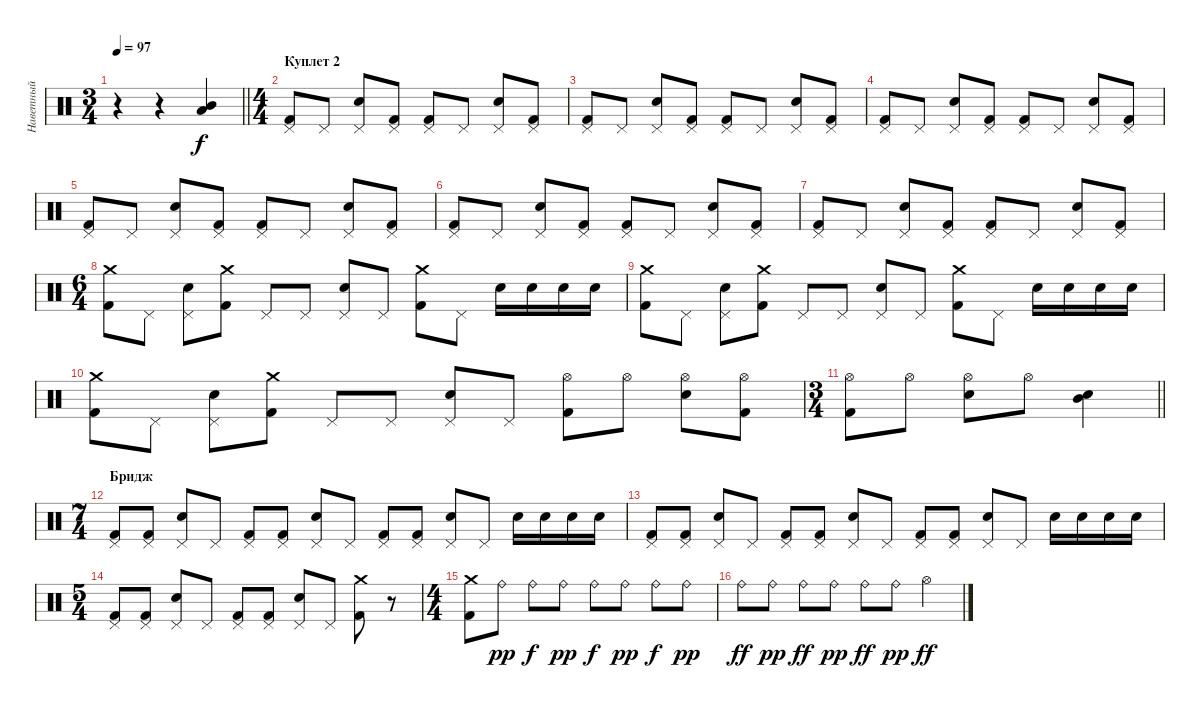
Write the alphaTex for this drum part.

\track ("Наветный" "Наветный") {instrument percussion}
\staff {score}
\articulation defaults
\ts (3 4)
\tempo 97
\clef neutral
\barLineRight lightlight
\ks c
r.4{dy f} r.4 ("Low Tom (hit)" "Mid Tom (hit)").4 |
\ts (4 4)
\section ("" "Куплет 2")
("Pedal Hi-Hat (hit)" "Kick (hit) 2").8 "Pedal Hi-Hat (hit)".8 ("Pedal Hi-Hat (hit)" "Electric Snare (hit)").8 ("Pedal Hi-Hat (hit)" "Kick (hit) 2").8 ("Pedal Hi-Hat (hit)" "Kick (hit) 2").8 "Pedal Hi-Hat (hit)".8 ("Pedal Hi-Hat (hit)" "Electric Snare (hit)").8 ("Pedal Hi-Hat (hit)" "Kick (hit) 2").8 |
("Pedal Hi-Hat (hit)" "Kick (hit) 2").8 "Pedal Hi-Hat (hit)".8 ("Pedal Hi-Hat (hit)" "Electric Snare (hit)").8 ("Pedal Hi-Hat (hit)" "Kick (hit) 2").8 ("Pedal Hi-Hat (hit)" "Kick (hit) 2").8 "Pedal Hi-Hat (hit)".8 ("Pedal Hi-Hat (hit)" "Electric Snare (hit)").8 ("Pedal Hi-Hat (hit)" "Kick (hit) 2").8 |
("Pedal Hi-Hat (hit)" "Kick (hit) 2").8 "Pedal Hi-Hat (hit)".8 ("Pedal Hi-Hat (hit)" "Electric Snare (hit)").8 ("Pedal Hi-Hat (hit)" "Kick (hit) 2").8 ("Pedal Hi-Hat (hit)" "Kick (hit) 2").8 "Pedal Hi-Hat (hit)".8 ("Pedal Hi-Hat (hit)" "Electric Snare (hit)").8 ("Pedal Hi-Hat (hit)" "Kick (hit) 2").8 |
("Pedal Hi-Hat (hit)" "Kick (hit) 2").8 "Pedal Hi-Hat (hit)".8 ("Pedal Hi-Hat (hit)" "Electric Snare (hit)").8 ("Pedal Hi-Hat (hit)" "Kick (hit) 2").8 ("Pedal Hi-Hat (hit)" "Kick (hit) 2").8 "Pedal Hi-Hat (hit)".8 ("Pedal Hi-Hat (hit)" "Electric Snare (hit)").8 ("Pedal Hi-Hat (hit)" "Kick (hit) 2").8 |
("Pedal Hi-Hat (hit)" "Kick (hit) 2").8 "Pedal Hi-Hat (hit)".8 ("Pedal Hi-Hat (hit)" "Electric Snare (hit)").8 ("Pedal Hi-Hat (hit)" "Kick (hit) 2").8 ("Pedal Hi-Hat (hit)" "Kick (hit) 2").8 "Pedal Hi-Hat (hit)".8 ("Pedal Hi-Hat (hit)" "Electric Snare (hit)").8 ("Pedal Hi-Hat (hit)" "Kick (hit) 2").8 |
("Pedal Hi-Hat (hit)" "Kick (hit) 2").8 "Pedal Hi-Hat (hit)".8 ("Pedal Hi-Hat (hit)" "Electric Snare (hit)").8 ("Pedal Hi-Hat (hit)" "Kick (hit) 2").8 ("Pedal Hi-Hat (hit)" "Kick (hit) 2").8 "Pedal Hi-Hat (hit)".8 ("Pedal Hi-Hat (hit)" "Electric Snare (hit)").8 ("Pedal Hi-Hat (hit)" "Kick (hit) 2").8 |
\ts (6 4)
("Crash medium (hit)" "Kick (hit) 2").8 "Pedal Hi-Hat (hit)".8 ("Pedal Hi-Hat (hit)" "Electric Snare (hit)").8 ("Crash medium (hit)" "Kick (hit) 2").8 "Pedal Hi-Hat (hit)".8 "Pedal Hi-Hat (hit)".8 ("Pedal Hi-Hat (hit)" "Electric Snare (hit)").8 "Pedal Hi-Hat (hit)".8 ("Crash medium (hit)" "Kick (hit) 2").8 "Pedal Hi-Hat (hit)".8 "Electric Snare (hit)".16 "Electric Snare (hit)".16 "Electric Snare (hit)".16 "Electric Snare (hit)".16 |
("Crash medium (hit)" "Kick (hit) 2").8 "Pedal Hi-Hat (hit)".8 ("Pedal Hi-Hat (hit)" "Electric Snare (hit)").8 ("Crash medium (hit)" "Kick (hit) 2").8 "Pedal Hi-Hat (hit)".8 "Pedal Hi-Hat (hit)".8 ("Pedal Hi-Hat (hit)" "Electric Snare (hit)").8 "Pedal Hi-Hat (hit)".8 ("Crash medium (hit)" "Kick (hit) 2").8 "Pedal Hi-Hat (hit)".8 "Electric Snare (hit)".16 "Electric Snare (hit)".16 "Electric Snare (hit)".16 "Electric Snare (hit)".16 |
("Crash medium (hit)" "Kick (hit) 2").8 "Pedal Hi-Hat (hit)".8 ("Pedal Hi-Hat (hit)" "Electric Snare (hit)").8 ("Crash medium (hit)" "Kick (hit) 2").8 "Pedal Hi-Hat (hit)".8 "Pedal Hi-Hat (hit)".8 ("Pedal Hi-Hat (hit)" "Electric Snare (hit)").8 "Pedal Hi-Hat (hit)".8 ("Hi-Hat (open)" "Kick (hit) 2").8 "Hi-Hat (open)".8 ("Hi-Hat (open)" "Electric Snare (hit)").8 ("Hi-Hat (open)" "Kick (hit) 2").8 |
\ts (3 4)
\barLineRight lightlight
("Hi-Hat (open)" "Kick (hit) 2").8 "Hi-Hat (open)".8 ("Hi-Hat (open)" "Electric Snare (hit)").8 "Hi-Hat (open)".8 ("Electric Snare (hit)" "Mid Tom (hit)").4 |
\ts (7 4)
\section ("" "Бридж")
("Pedal Hi-Hat (hit)" "Kick (hit) 2").8 ("Pedal Hi-Hat (hit)" "Kick (hit) 2").8 ("Pedal Hi-Hat (hit)" "Electric Snare (hit)").8 "Pedal Hi-Hat (hit)".8 ("Pedal Hi-Hat (hit)" "Kick (hit) 2").8 ("Pedal Hi-Hat (hit)" "Kick (hit) 2").8 ("Pedal Hi-Hat (hit)" "Electric Snare (hit)").8 "Pedal Hi-Hat (hit)".8 ("Pedal Hi-Hat (hit)" "Kick (hit) 2").8 ("Pedal Hi-Hat (hit)" "Kick (hit) 2").8 ("Pedal Hi-Hat (hit)" "Electric Snare (hit)").8 "Pedal Hi-Hat (hit)".8 "Electric Snare (hit)".16 "Electric Snare (hit)".16 "Electric Snare (hit)".16 "Electric Snare (hit)".16 |
("Pedal Hi-Hat (hit)" "Kick (hit) 2").8 ("Pedal Hi-Hat (hit)" "Kick (hit) 2").8 ("Pedal Hi-Hat (hit)" "Electric Snare (hit)").8 "Pedal Hi-Hat (hit)".8 ("Pedal Hi-Hat (hit)" "Kick (hit) 2").8 ("Pedal Hi-Hat (hit)" "Kick (hit) 2").8 ("Pedal Hi-Hat (hit)" "Electric Snare (hit)").8 "Pedal Hi-Hat (hit)".8 ("Pedal Hi-Hat (hit)" "Kick (hit) 2").8 ("Pedal Hi-Hat (hit)" "Kick (hit) 2").8 ("Pedal Hi-Hat (hit)" "Electric Snare (hit)").8 "Pedal Hi-Hat (hit)".8 "Electric Snare (hit)".16 "Electric Snare (hit)".16 "Electric Snare (hit)".16 "Electric Snare (hit)".16 |
\ts (5 4)
("Pedal Hi-Hat (hit)" "Kick (hit) 2").8 ("Pedal Hi-Hat (hit)" "Kick (hit) 2").8 ("Pedal Hi-Hat (hit)" "Electric Snare (hit)").8 "Pedal Hi-Hat (hit)".8 ("Pedal Hi-Hat (hit)" "Kick (hit) 2").8 ("Pedal Hi-Hat (hit)" "Kick (hit) 2").8 ("Pedal Hi-Hat (hit)" "Electric Snare (hit)").8 "Pedal Hi-Hat (hit)".8 ("Crash medium (hit)" "Kick (hit) 2").8 r.8 |
\ts (4 4)
("Crash medium (hit)" "Kick (hit) 2").8 "Ride (bell)".8{dy pp} "Ride (bell)".8{dy f} "Ride (bell)".8{dy pp} "Ride (bell)".8{dy f} "Ride (bell)".8{dy pp} "Ride (bell)".8{dy f} "Ride (bell)".8{dy pp} |
"Ride (bell)".8{dy ff} "Ride (bell)".8{dy pp} "Ride (bell)".8{dy ff} "Ride (bell)".8{dy pp} "Ride (bell)".8{dy ff} "Ride (bell)".8{dy pp} "Hi-Hat (open)".4{dy ff}
